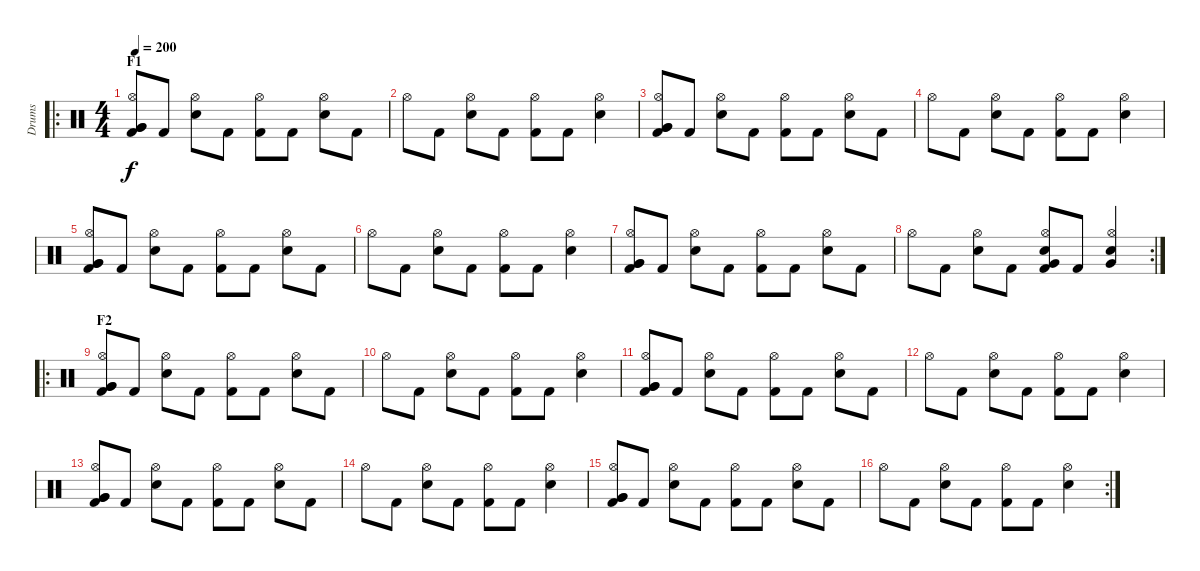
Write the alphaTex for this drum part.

\track ("Drums" "Drums") {instrument percussion}
\staff {score}
\articulation defaults
\ro
\ts (4 4)
\section ("" "F1")
\tempo 200
\clef neutral
\ks c
("Very Low Tom (hit)" "Very Low Tom (hit)" "Hi-Hat (open)" "Kick (hit) 2").8{dy f} "Kick (hit) 2".8 ("Electric Snare (hit)" "Hi-Hat (open)").8 "Kick (hit) 2".8 ("Hi-Hat (open)" "Kick (hit) 2").8 "Kick (hit) 2".8 ("Electric Snare (hit)" "Hi-Hat (open)").8 "Kick (hit) 2".8 |
"Hi-Hat (open)".8 "Kick (hit) 2".8 ("Electric Snare (hit)" "Hi-Hat (open)").8 "Kick (hit) 2".8 ("Hi-Hat (open)" "Kick (hit) 2").8 "Kick (hit) 2".8 ("Electric Snare (hit)" "Hi-Hat (open)").4 |
("Very Low Tom (hit)" "Very Low Tom (hit)" "Hi-Hat (open)" "Kick (hit) 2").8 "Kick (hit) 2".8 ("Electric Snare (hit)" "Hi-Hat (open)").8 "Kick (hit) 2".8 ("Hi-Hat (open)" "Kick (hit) 2").8 "Kick (hit) 2".8 ("Electric Snare (hit)" "Hi-Hat (open)").8 "Kick (hit) 2".8 |
"Hi-Hat (open)".8 "Kick (hit) 2".8 ("Electric Snare (hit)" "Hi-Hat (open)").8 "Kick (hit) 2".8 ("Hi-Hat (open)" "Kick (hit) 2").8 "Kick (hit) 2".8 ("Electric Snare (hit)" "Hi-Hat (open)").4 |
("Very Low Tom (hit)" "Very Low Tom (hit)" "Hi-Hat (open)" "Kick (hit) 2").8 "Kick (hit) 2".8 ("Electric Snare (hit)" "Hi-Hat (open)").8 "Kick (hit) 2".8 ("Hi-Hat (open)" "Kick (hit) 2").8 "Kick (hit) 2".8 ("Electric Snare (hit)" "Hi-Hat (open)").8 "Kick (hit) 2".8 |
"Hi-Hat (open)".8 "Kick (hit) 2".8 ("Electric Snare (hit)" "Hi-Hat (open)").8 "Kick (hit) 2".8 ("Hi-Hat (open)" "Kick (hit) 2").8 "Kick (hit) 2".8 ("Electric Snare (hit)" "Hi-Hat (open)").4 |
("Very Low Tom (hit)" "Very Low Tom (hit)" "Hi-Hat (open)" "Kick (hit) 2").8 "Kick (hit) 2".8 ("Electric Snare (hit)" "Hi-Hat (open)").8 "Kick (hit) 2".8 ("Hi-Hat (open)" "Kick (hit) 2").8 "Kick (hit) 2".8 ("Electric Snare (hit)" "Hi-Hat (open)").8 "Kick (hit) 2".8 |
\rc 2 "Hi-Hat (open)".8 "Kick (hit) 2".8
("Electric Snare (hit)" "Hi-Hat (open)").8 "Kick (hit) 2".8 ("Very Low Tom (hit)" "Electric Snare (hit)" "Hi-Hat (open)" "Kick (hit) 2").8 "Kick (hit) 2".8 ("Very Low Tom (hit)" "Electric Snare (hit)" "Hi-Hat (open)").4 |
\ro
\section ("" "F2")
("Very Low Tom (hit)" "Very Low Tom (hit)" "Hi-Hat (open)" "Kick (hit) 2").8 "Kick (hit) 2".8 ("Electric Snare (hit)" "Hi-Hat (open)").8 "Kick (hit) 2".8 ("Hi-Hat (open)" "Kick (hit) 2").8 "Kick (hit) 2".8 ("Electric Snare (hit)" "Hi-Hat (open)").8 "Kick (hit) 2".8 |
"Hi-Hat (open)".8 "Kick (hit) 2".8 ("Electric Snare (hit)" "Hi-Hat (open)").8 "Kick (hit) 2".8 ("Hi-Hat (open)" "Kick (hit) 2").8 "Kick (hit) 2".8 ("Electric Snare (hit)" "Hi-Hat (open)").4 |
("Very Low Tom (hit)" "Very Low Tom (hit)" "Hi-Hat (open)" "Kick (hit) 2").8 "Kick (hit) 2".8 ("Electric Snare (hit)" "Hi-Hat (open)").8 "Kick (hit) 2".8 ("Hi-Hat (open)" "Kick (hit) 2").8 "Kick (hit) 2".8 ("Electric Snare (hit)" "Hi-Hat (open)").8 "Kick (hit) 2".8 |
"Hi-Hat (open)".8 "Kick (hit) 2".8 ("Electric Snare (hit)" "Hi-Hat (open)").8 "Kick (hit) 2".8 ("Hi-Hat (open)" "Kick (hit) 2").8 "Kick (hit) 2".8 ("Electric Snare (hit)" "Hi-Hat (open)").4 |
("Very Low Tom (hit)" "Very Low Tom (hit)" "Hi-Hat (open)" "Kick (hit) 2").8 "Kick (hit) 2".8 ("Electric Snare (hit)" "Hi-Hat (open)").8 "Kick (hit) 2".8 ("Hi-Hat (open)" "Kick (hit) 2").8 "Kick (hit) 2".8 ("Electric Snare (hit)" "Hi-Hat (open)").8 "Kick (hit) 2".8 |
"Hi-Hat (open)".8 "Kick (hit) 2".8 ("Electric Snare (hit)" "Hi-Hat (open)").8 "Kick (hit) 2".8 ("Hi-Hat (open)" "Kick (hit) 2").8 "Kick (hit) 2".8 ("Electric Snare (hit)" "Hi-Hat (open)").4 |
("Very Low Tom (hit)" "Very Low Tom (hit)" "Hi-Hat (open)" "Kick (hit) 2").8 "Kick (hit) 2".8 ("Electric Snare (hit)" "Hi-Hat (open)").8 "Kick (hit) 2".8 ("Hi-Hat (open)" "Kick (hit) 2").8 "Kick (hit) 2".8 ("Electric Snare (hit)" "Hi-Hat (open)").8 "Kick (hit) 2".8 |
\rc 2 "Hi-Hat (open)".8 "Kick (hit) 2".8
("Electric Snare (hit)" "Hi-Hat (open)").8 "Kick (hit) 2".8 ("Hi-Hat (open)" "Kick (hit) 2").8 "Kick (hit) 2".8 ("Electric Snare (hit)" "Hi-Hat (open)").4
